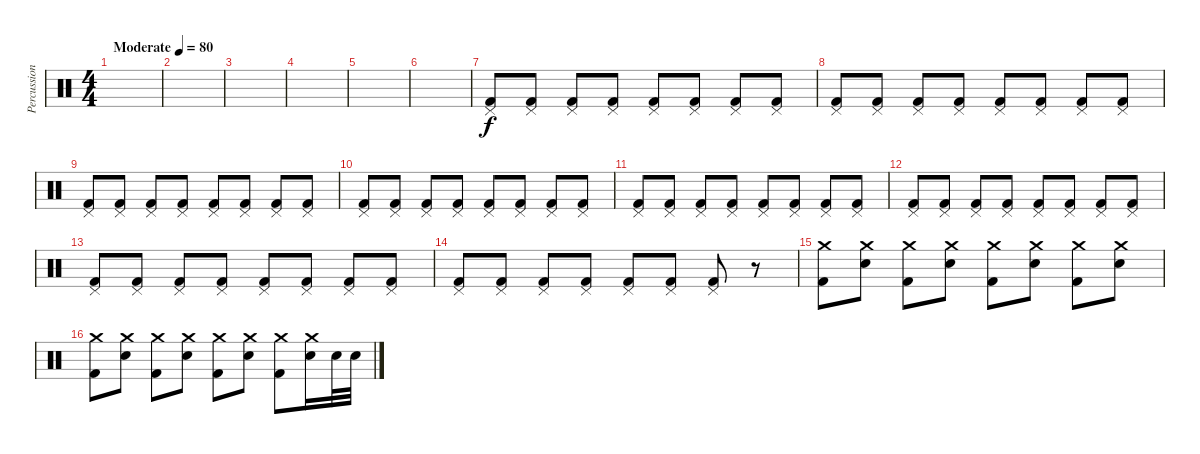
\track ("Percussions" "Percussion") {instrument percussion}
\staff {score}
\articulation defaults
\ts (4 4)
\tempo (80 "Moderate")
\clef neutral
\ks c
|
|
|
|
|
|
("Pedal Hi-Hat (hit)" "Kick (hit) 2").8 ("Pedal Hi-Hat (hit)" "Kick (hit) 2").8 ("Pedal Hi-Hat (hit)" "Kick (hit) 2").8 ("Pedal Hi-Hat (hit)" "Kick (hit) 2").8 ("Pedal Hi-Hat (hit)" "Kick (hit) 2").8 ("Pedal Hi-Hat (hit)" "Kick (hit) 2").8 ("Pedal Hi-Hat (hit)" "Kick (hit) 2").8 ("Pedal Hi-Hat (hit)" "Kick (hit) 2").8 |
("Pedal Hi-Hat (hit)" "Kick (hit) 2").8 ("Pedal Hi-Hat (hit)" "Kick (hit) 2").8 ("Pedal Hi-Hat (hit)" "Kick (hit) 2").8 ("Pedal Hi-Hat (hit)" "Kick (hit) 2").8 ("Pedal Hi-Hat (hit)" "Kick (hit) 2").8 ("Pedal Hi-Hat (hit)" "Kick (hit) 2").8 ("Pedal Hi-Hat (hit)" "Kick (hit) 2").8 ("Pedal Hi-Hat (hit)" "Kick (hit) 2").8 |
("Pedal Hi-Hat (hit)" "Kick (hit) 2").8 ("Pedal Hi-Hat (hit)" "Kick (hit) 2").8 ("Pedal Hi-Hat (hit)" "Kick (hit) 2").8 ("Pedal Hi-Hat (hit)" "Kick (hit) 2").8 ("Pedal Hi-Hat (hit)" "Kick (hit) 2").8 ("Pedal Hi-Hat (hit)" "Kick (hit) 2").8 ("Pedal Hi-Hat (hit)" "Kick (hit) 2").8 ("Pedal Hi-Hat (hit)" "Kick (hit) 2").8 |
("Pedal Hi-Hat (hit)" "Kick (hit) 2").8 ("Pedal Hi-Hat (hit)" "Kick (hit) 2").8 ("Pedal Hi-Hat (hit)" "Kick (hit) 2").8 ("Pedal Hi-Hat (hit)" "Kick (hit) 2").8 ("Pedal Hi-Hat (hit)" "Kick (hit) 2").8 ("Pedal Hi-Hat (hit)" "Kick (hit) 2").8 ("Pedal Hi-Hat (hit)" "Kick (hit) 2").8 ("Pedal Hi-Hat (hit)" "Kick (hit) 2").8 |
("Pedal Hi-Hat (hit)" "Kick (hit) 2").8 ("Pedal Hi-Hat (hit)" "Kick (hit) 2").8 ("Pedal Hi-Hat (hit)" "Kick (hit) 2").8 ("Pedal Hi-Hat (hit)" "Kick (hit) 2").8 ("Pedal Hi-Hat (hit)" "Kick (hit) 2").8 ("Pedal Hi-Hat (hit)" "Kick (hit) 2").8 ("Pedal Hi-Hat (hit)" "Kick (hit) 2").8 ("Pedal Hi-Hat (hit)" "Kick (hit) 2").8 |
("Pedal Hi-Hat (hit)" "Kick (hit) 2").8 ("Pedal Hi-Hat (hit)" "Kick (hit) 2").8 ("Pedal Hi-Hat (hit)" "Kick (hit) 2").8 ("Pedal Hi-Hat (hit)" "Kick (hit) 2").8 ("Pedal Hi-Hat (hit)" "Kick (hit) 2").8 ("Pedal Hi-Hat (hit)" "Kick (hit) 2").8 ("Pedal Hi-Hat (hit)" "Kick (hit) 2").8 ("Pedal Hi-Hat (hit)" "Kick (hit) 2").8 |
("Pedal Hi-Hat (hit)" "Kick (hit) 2").8 ("Pedal Hi-Hat (hit)" "Kick (hit) 2").8 ("Pedal Hi-Hat (hit)" "Kick (hit) 2").8 ("Pedal Hi-Hat (hit)" "Kick (hit) 2").8 ("Pedal Hi-Hat (hit)" "Kick (hit) 2").8 ("Pedal Hi-Hat (hit)" "Kick (hit) 2").8 ("Pedal Hi-Hat (hit)" "Kick (hit) 2").8 ("Pedal Hi-Hat (hit)" "Kick (hit) 2").8 |
("Pedal Hi-Hat (hit)" "Kick (hit) 2").8 ("Pedal Hi-Hat (hit)" "Kick (hit) 2").8 ("Pedal Hi-Hat (hit)" "Kick (hit) 2").8 ("Pedal Hi-Hat (hit)" "Kick (hit) 2").8 ("Pedal Hi-Hat (hit)" "Kick (hit) 2").8 ("Pedal Hi-Hat (hit)" "Kick (hit) 2").8 ("Pedal Hi-Hat (hit)" "Kick (hit) 2").8 r.8 |
("Crash medium (hit)" "Kick (hit) 2").8 ("Crash medium (hit)" "Electric Snare (hit)").8 ("Crash medium (hit)" "Kick (hit) 2").8 ("Crash medium (hit)" "Electric Snare (hit)").8 ("Crash medium (hit)" "Kick (hit) 2").8 ("Crash medium (hit)" "Electric Snare (hit)").8 ("Crash medium (hit)" "Kick (hit) 2").8 ("Crash medium (hit)" "Electric Snare (hit)").8 |
("Crash medium (hit)" "Kick (hit) 2").8 ("Crash medium (hit)" "Electric Snare (hit)").8 ("Crash medium (hit)" "Kick (hit) 2").8 ("Crash medium (hit)" "Electric Snare (hit)").8 ("Crash medium (hit)" "Kick (hit) 2").8 ("Crash medium (hit)" "Electric Snare (hit)").8 ("Crash medium (hit)" "Kick (hit) 2").8 ("Crash medium (hit)" "Electric Snare (hit)").16 "Electric Snare (hit)".32 "Electric Snare (hit)".32
